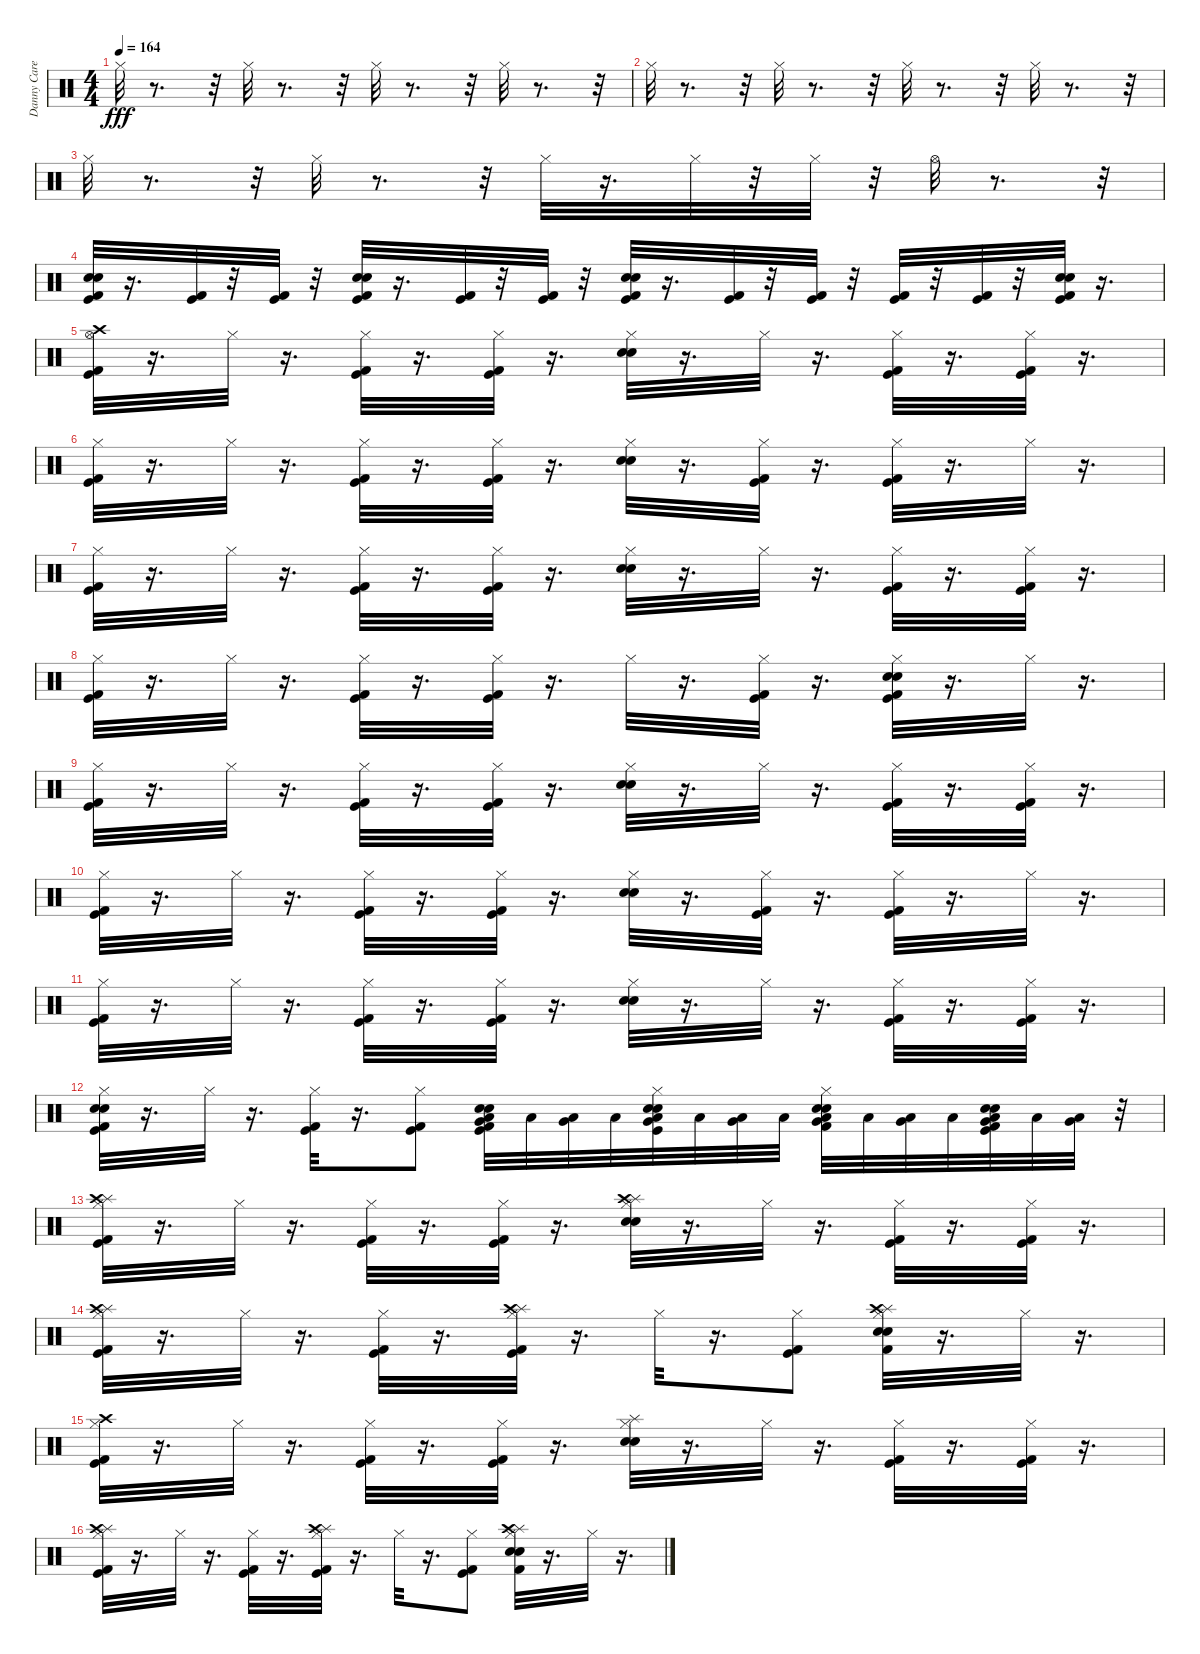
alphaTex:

\track ("Danny Carey" "Danny Care") {instrument percussion}
\staff {score}
\articulation defaults
\ts (4 4)
\tempo 164
\clef neutral
\ks c "Hi-Hat (closed)".32{dy fff}
r.8{d} r.32 "Hi-Hat (closed)".32 r.8{d} r.32 "Hi-Hat (closed)".32 r.8{d} r.32 "Hi-Hat (closed)".32 r.8{d} r.32 |
"Hi-Hat (closed)".32 r.8{d} r.32 "Hi-Hat (closed)".32 r.8{d} r.32 "Hi-Hat (closed)".32 r.8{d} r.32 "Hi-Hat (closed)".32 r.8{d} r.32 |
"Hi-Hat (closed)".32 r.8{d} r.32 "Hi-Hat (closed)".32 r.8{d} r.32 "Hi-Hat (closed)".32 r.16{d} "Hi-Hat (closed)".32 r.32 "Hi-Hat (closed)".32 r.32 "Hi-Hat (open)".32 r.8{d} r.32 |
("Kick (hit)" "Electric Snare (hit)" "Kick (hit) 2" "Snare (hit) 2").32 r.16{d} ("Kick (hit)" "Kick (hit) 2").32 r.32 ("Kick (hit)" "Kick (hit) 2").32 r.32 ("Kick (hit)" "Kick (hit) 2" "Electric Snare (hit)" "Snare (hit) 2").32 r.16{d} ("Kick (hit)" "Kick (hit) 2").32 r.32 ("Kick (hit)" "Kick (hit) 2").32 r.32 ("Kick (hit)" "Kick (hit) 2" "Snare (hit) 2" "Electric Snare (hit)").32 r.16{d} ("Kick (hit)" "Kick (hit) 2").32 r.32 ("Kick (hit)" "Kick (hit) 2").32 r.32 ("Kick (hit)" "Kick (hit) 2").32 r.32 ("Kick (hit)" "Kick (hit) 2").32 r.32 ("Kick (hit)" "Kick (hit) 2" "Snare (hit) 2" "Electric Snare (hit)").32 r.16{d} |
("Crash high (hit)" "Hi-Hat (open)" "Kick (hit)" "Kick (hit) 2").32 r.16{d} "Hi-Hat (closed)".32 r.16{d} ("Hi-Hat (closed)" "Kick (hit)" "Kick (hit) 2").32 r.16{d} ("Hi-Hat (closed)" "Kick (hit)" "Kick (hit) 2").32 r.16{d} ("Hi-Hat (closed)" "Electric Snare (hit)" "Snare (hit) 2").32 r.16{d} "Hi-Hat (closed)".32 r.16{d} ("Hi-Hat (closed)" "Kick (hit)" "Kick (hit) 2").32 r.16{d} ("Hi-Hat (closed)" "Kick (hit) 2" "Kick (hit)").32 r.16{d} |
("Hi-Hat (closed)" "Kick (hit)" "Kick (hit) 2").32 r.16{d} "Hi-Hat (closed)".32 r.16{d} ("Hi-Hat (closed)" "Kick (hit)" "Kick (hit) 2").32 r.16{d} ("Hi-Hat (closed)" "Kick (hit)" "Kick (hit) 2").32 r.16{d} ("Hi-Hat (closed)" "Electric Snare (hit)" "Snare (hit) 2").32 r.16{d} ("Hi-Hat (closed)" "Kick (hit)" "Kick (hit) 2").32 r.16{d} ("Hi-Hat (closed)" "Kick (hit) 2" "Kick (hit)").32 r.16{d} "Hi-Hat (closed)".32 r.16{d} |
("Hi-Hat (closed)" "Kick (hit)" "Kick (hit) 2").32 r.16{d} "Hi-Hat (closed)".32 r.16{d} ("Hi-Hat (closed)" "Kick (hit)" "Kick (hit) 2").32 r.16{d} ("Hi-Hat (closed)" "Kick (hit)" "Kick (hit) 2").32 r.16{d} ("Hi-Hat (closed)" "Electric Snare (hit)" "Snare (hit) 2").32 r.16{d} "Hi-Hat (closed)".32 r.16{d} ("Hi-Hat (closed)" "Kick (hit)" "Kick (hit) 2").32 r.16{d} ("Hi-Hat (closed)" "Kick (hit) 2" "Kick (hit)").32 r.16{d} |
("Hi-Hat (closed)" "Kick (hit)" "Kick (hit) 2").32 r.16{d} "Hi-Hat (closed)".32 r.16{d} ("Hi-Hat (closed)" "Kick (hit)" "Kick (hit) 2").32 r.16{d} ("Hi-Hat (closed)" "Kick (hit)" "Kick (hit) 2").32 r.16{d} "Hi-Hat (closed)".32 r.16{d} ("Hi-Hat (closed)" "Kick (hit)" "Kick (hit) 2").32 r.16{d} ("Electric Snare (hit)" "Snare (hit) 2" "Hi-Hat (closed)" "Kick (hit) 2" "Kick (hit)").32 r.16{d} "Hi-Hat (closed)".32 r.16{d} |
("Hi-Hat (closed)" "Kick (hit)" "Kick (hit) 2").32 r.16{d} "Hi-Hat (closed)".32 r.16{d} ("Hi-Hat (closed)" "Kick (hit)" "Kick (hit) 2").32 r.16{d} ("Hi-Hat (closed)" "Kick (hit)" "Kick (hit) 2").32 r.16{d} ("Hi-Hat (closed)" "Electric Snare (hit)" "Snare (hit) 2").32 r.16{d} "Hi-Hat (closed)".32 r.16{d} ("Hi-Hat (closed)" "Kick (hit)" "Kick (hit) 2").32 r.16{d} ("Hi-Hat (closed)" "Kick (hit) 2" "Kick (hit)").32 r.16{d} |
("Hi-Hat (closed)" "Kick (hit)" "Kick (hit) 2").32 r.16{d} "Hi-Hat (closed)".32 r.16{d} ("Hi-Hat (closed)" "Kick (hit)" "Kick (hit) 2").32 r.16{d} ("Hi-Hat (closed)" "Kick (hit)" "Kick (hit) 2").32 r.16{d} ("Hi-Hat (closed)" "Electric Snare (hit)" "Snare (hit) 2").32 r.16{d} ("Hi-Hat (closed)" "Kick (hit)" "Kick (hit) 2").32 r.16{d} ("Hi-Hat (closed)" "Kick (hit) 2" "Kick (hit)").32 r.16{d} "Hi-Hat (closed)".32 r.16{d} |
("Hi-Hat (closed)" "Kick (hit)" "Kick (hit) 2").32 r.16{d} "Hi-Hat (closed)".32 r.16{d} ("Hi-Hat (closed)" "Kick (hit)" "Kick (hit) 2").32 r.16{d} ("Hi-Hat (closed)" "Kick (hit)" "Kick (hit) 2").32 r.16{d} ("Hi-Hat (closed)" "Electric Snare (hit)" "Snare (hit) 2").32 r.16{d} "Hi-Hat (closed)".32 r.16{d} ("Hi-Hat (closed)" "Kick (hit)" "Kick (hit) 2").32 r.16{d} ("Hi-Hat (closed)" "Kick (hit) 2" "Kick (hit)").32 r.16{d} |
("Snare (hit) 2" "Electric Snare (hit)" "Hi-Hat (closed)" "Kick (hit)" "Kick (hit) 2").32 r.16{d} "Hi-Hat (closed)".32 r.16{d} ("Hi-Hat (closed)" "Kick (hit)" "Kick (hit) 2").32 r.16{d} ("Hi-Hat (closed)" "Kick (hit)" "Kick (hit) 2").8 ("Snare (hit) 2" "Electric Snare (hit)" "Kick (hit)" "Kick (hit) 2" "Very Low Tom (hit)" "Low Floor Tom (hit)").32 "Low Floor Tom (hit)".32 ("Very Low Tom (hit)" "Low Floor Tom (hit)").32 "Low Floor Tom (hit)".32 ("Snare (hit) 2" "Electric Snare (hit)" "Very Low Tom (hit)" "Low Floor Tom (hit)" "Hi-Hat (closed)" "Kick (hit)").32 "Low Floor Tom (hit)".32 ("Low Floor Tom (hit)" "Very Low Tom (hit)").32 "Low Floor Tom (hit)".32 ("Snare (hit) 2" "Electric Snare (hit)" "Low Floor Tom (hit)" "Very Low Tom (hit)" "Hi-Hat (closed)" "Kick (hit) 2").32 "Low Floor Tom (hit)".32 ("Very Low Tom (hit)" "Low Floor Tom (hit)").32 "Low Floor Tom (hit)".32 ("Snare (hit) 2" "Electric Snare (hit)" "Kick (hit)" "Kick (hit) 2" "Very Low Tom (hit)" "Low Floor Tom (hit)").32 "Low Floor Tom (hit)".32 ("Very Low Tom (hit)" "Low Floor Tom (hit)").32 r.32 |
("Splash (hit)" "Crash high (hit)" "Hi-Hat (closed)" "Kick (hit)" "Kick (hit) 2").32 r.16{d} "Hi-Hat (closed)".32 r.16{d} ("Hi-Hat (closed)" "Kick (hit)" "Kick (hit) 2").32 r.16{d} ("Hi-Hat (closed)" "Kick (hit)" "Kick (hit) 2").32 r.16{d} ("Splash (hit)" "Crash high (hit)" "Hi-Hat (closed)" "Electric Snare (hit)" "Snare (hit) 2").32 r.16{d} "Hi-Hat (closed)".32 r.16{d} ("Hi-Hat (closed)" "Kick (hit)" "Kick (hit) 2").32 r.16{d} ("Hi-Hat (closed)" "Kick (hit) 2" "Kick (hit)").32 r.16{d} |
("Splash (hit)" "Crash high (hit)" "Hi-Hat (closed)" "Kick (hit)" "Kick (hit) 2").32 r.16{d} "Hi-Hat (closed)".32 r.16{d} ("Hi-Hat (closed)" "Kick (hit)" "Kick (hit) 2").32 r.16{d} ("Splash (hit)" "Crash high (hit)" "Hi-Hat (closed)" "Kick (hit)" "Kick (hit) 2").32 r.16{d} "Hi-Hat (closed)".32 r.16{d} ("Hi-Hat (closed)" "Kick (hit)" "Kick (hit) 2").8 ("Splash (hit)" "Crash high (hit)" "Electric Snare (hit)" "Snare (hit) 2" "Hi-Hat (closed)" "Kick (hit) 2").32 r.16{d} "Hi-Hat (closed)".32 r.16{d} |
("Crash high (hit)" "Hi-Hat (closed)" "Kick (hit)" "Kick (hit) 2").32 r.16{d} "Hi-Hat (closed)".32 r.16{d} ("Hi-Hat (closed)" "Kick (hit)" "Kick (hit) 2").32 r.16{d} ("Hi-Hat (closed)" "Kick (hit)" "Kick (hit) 2").32 r.16{d} ("Splash (hit)" "Hi-Hat (closed)" "Electric Snare (hit)" "Snare (hit) 2").32 r.16{d} "Hi-Hat (closed)".32 r.16{d} ("Hi-Hat (closed)" "Kick (hit)" "Kick (hit) 2").32 r.16{d} ("Hi-Hat (closed)" "Kick (hit) 2" "Kick (hit)").32 r.16{d} |
("Splash (hit)" "Crash high (hit)" "Hi-Hat (closed)" "Kick (hit)" "Kick (hit) 2").32 r.16{d} "Hi-Hat (closed)".32 r.16{d} ("Hi-Hat (closed)" "Kick (hit)" "Kick (hit) 2").32 r.16{d} ("Splash (hit)" "Crash high (hit)" "Hi-Hat (closed)" "Kick (hit)" "Kick (hit) 2").32 r.16{d} "Hi-Hat (closed)".32 r.16{d} ("Hi-Hat (closed)" "Kick (hit)" "Kick (hit) 2").8 ("Splash (hit)" "Crash high (hit)" "Electric Snare (hit)" "Snare (hit) 2" "Hi-Hat (closed)" "Kick (hit) 2").32 r.16{d} "Hi-Hat (closed)".32 r.16{d}
